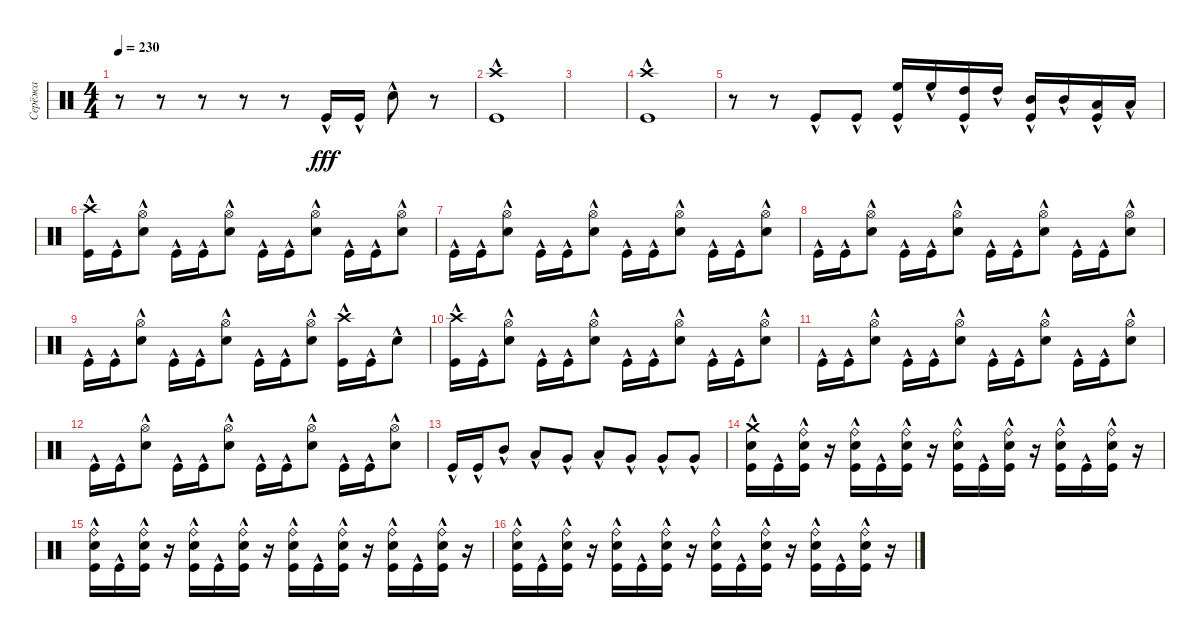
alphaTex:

\track ("Серёжа" "Серёжа") {instrument percussion}
\staff {score}
\articulation defaults
\ts (4 4)
\tempo 230
\clef neutral
\ks c
r.8{dy fff} r.8 r.8 r.8 r.8 "Kick (hit)"{hac}.16 "Kick (hit)"{hac}.16 "Snare (hit) 2"{hac}.8 r.8 |
("Crash high (hit)"{hac} "Kick (hit)"{hac}).1 |
|
("Crash high (hit)"{hac} "Kick (hit)"{hac}).1 |
r.8 r.8 "Kick (hit)"{hac}.8 "Kick (hit)"{hac}.8 ("High Floor Tom (hit)"{hac} "Kick (hit)"{hac}).16 "High Floor Tom (hit)"{hac}.16 ("High Tom (hit)"{hac} "Kick (hit)"{hac}).16 "High Tom (hit)"{hac}.16 ("Mid Tom (hit)"{hac} "Kick (hit)"{hac}).16 "Mid Tom (hit)"{hac}.16 ("Low Tom (hit)"{hac} "Kick (hit)"{hac}).16 "Low Tom (hit)"{hac}.16 |
("Crash high (hit)"{hac} "Kick (hit)"{hac}).16 "Kick (hit)"{hac}.16 ("Hi-Hat (open)" "Snare (hit) 2"{hac}).8 "Kick (hit)"{hac}.16 "Kick (hit)"{hac}.16 ("Hi-Hat (open)" "Snare (hit) 2"{hac}).8 "Kick (hit)"{hac}.16 "Kick (hit)"{hac}.16 ("Hi-Hat (open)" "Snare (hit) 2"{hac}).8 "Kick (hit)"{hac}.16 "Kick (hit)"{hac}.16 ("Hi-Hat (open)" "Snare (hit) 2"{hac}).8 |
"Kick (hit)"{hac}.16 "Kick (hit)"{hac}.16 ("Hi-Hat (open)" "Snare (hit) 2"{hac}).8 "Kick (hit)"{hac}.16 "Kick (hit)"{hac}.16 ("Hi-Hat (open)" "Snare (hit) 2"{hac}).8 "Kick (hit)"{hac}.16 "Kick (hit)"{hac}.16 ("Hi-Hat (open)" "Snare (hit) 2"{hac}).8 "Kick (hit)"{hac}.16 "Kick (hit)"{hac}.16 ("Hi-Hat (open)" "Snare (hit) 2"{hac}).8 |
"Kick (hit)"{hac}.16 "Kick (hit)"{hac}.16 ("Hi-Hat (open)" "Snare (hit) 2"{hac}).8 "Kick (hit)"{hac}.16 "Kick (hit)"{hac}.16 ("Hi-Hat (open)" "Snare (hit) 2"{hac}).8 "Kick (hit)"{hac}.16 "Kick (hit)"{hac}.16 ("Hi-Hat (open)" "Snare (hit) 2"{hac}).8 "Kick (hit)"{hac}.16 "Kick (hit)"{hac}.16 ("Hi-Hat (open)" "Snare (hit) 2"{hac}).8 |
"Kick (hit)"{hac}.16 "Kick (hit)"{hac}.16 ("Hi-Hat (open)" "Snare (hit) 2"{hac}).8 "Kick (hit)"{hac}.16 "Kick (hit)"{hac}.16 ("Hi-Hat (open)" "Snare (hit) 2"{hac}).8 "Kick (hit)"{hac}.16 "Kick (hit)"{hac}.16 ("Hi-Hat (open)" "Snare (hit) 2"{hac}).8 ("Crash high (hit)"{hac} "Kick (hit)"{hac}).16 "Kick (hit)"{hac}.16 "Snare (hit) 2"{hac}.8 |
("Crash high (hit)"{hac} "Kick (hit)"{hac}).16 "Kick (hit)"{hac}.16 ("Hi-Hat (open)" "Snare (hit) 2"{hac}).8 "Kick (hit)"{hac}.16 "Kick (hit)"{hac}.16 ("Hi-Hat (open)" "Snare (hit) 2"{hac}).8 "Kick (hit)"{hac}.16 "Kick (hit)"{hac}.16 ("Hi-Hat (open)" "Snare (hit) 2"{hac}).8 "Kick (hit)"{hac}.16 "Kick (hit)"{hac}.16 ("Hi-Hat (open)" "Snare (hit) 2"{hac}).8 |
"Kick (hit)"{hac}.16 "Kick (hit)"{hac}.16 ("Hi-Hat (open)" "Snare (hit) 2"{hac}).8 "Kick (hit)"{hac}.16 "Kick (hit)"{hac}.16 ("Hi-Hat (open)" "Snare (hit) 2"{hac}).8 "Kick (hit)"{hac}.16 "Kick (hit)"{hac}.16 ("Hi-Hat (open)" "Snare (hit) 2"{hac}).8 "Kick (hit)"{hac}.16 "Kick (hit)"{hac}.16 ("Hi-Hat (open)" "Snare (hit) 2"{hac}).8 |
"Kick (hit)"{hac}.16 "Kick (hit)"{hac}.16 ("Hi-Hat (open)" "Snare (hit) 2"{hac}).8 "Kick (hit)"{hac}.16 "Kick (hit)"{hac}.16 ("Hi-Hat (open)" "Snare (hit) 2"{hac}).8 "Kick (hit)"{hac}.16 "Kick (hit)"{hac}.16 ("Hi-Hat (open)" "Snare (hit) 2"{hac}).8 "Kick (hit)"{hac}.16 "Kick (hit)"{hac}.16 ("Hi-Hat (open)" "Snare (hit) 2"{hac}).8 |
"Kick (hit)"{hac}.16 "Kick (hit)"{hac}.16 "Mid Tom (hit)"{hac}.8 "Low Tom (hit)"{hac}.8 "Very Low Tom (hit)"{hac}.8 "Low Floor Tom (hit)"{hac}.8 "Very Low Tom (hit)"{hac}.8 "Very Low Tom (hit)"{hac}.8 "Very Low Tom (hit)"{hac}.8 |
("Crash medium (hit)"{hac} "Snare (hit) 2"{hac} "Kick (hit)"{hac}).16 "Kick (hit)"{hac}.16 ("Ride (bell)" "Snare (hit) 2"{hac} "Kick (hit)"{hac}).16 r.16 ("Ride (bell)" "Snare (hit) 2"{hac} "Kick (hit)"{hac}).16 "Kick (hit)"{hac}.16 ("Ride (bell)" "Snare (hit) 2"{hac} "Kick (hit)"{hac}).16 r.16 ("Ride (bell)" "Snare (hit) 2"{hac} "Kick (hit)"{hac}).16 "Kick (hit)"{hac}.16 ("Ride (bell)" "Snare (hit) 2"{hac} "Kick (hit)"{hac}).16 r.16 ("Ride (bell)" "Snare (hit) 2"{hac} "Kick (hit)"{hac}).16 "Kick (hit)"{hac}.16 ("Ride (bell)" "Snare (hit) 2"{hac} "Kick (hit)"{hac}).16 r.16 |
("Ride (bell)" "Snare (hit) 2"{hac} "Kick (hit)"{hac}).16 "Kick (hit)"{hac}.16 ("Ride (bell)" "Snare (hit) 2"{hac} "Kick (hit)"{hac}).16 r.16 ("Ride (bell)" "Snare (hit) 2"{hac} "Kick (hit)"{hac}).16 "Kick (hit)"{hac}.16 ("Ride (bell)" "Snare (hit) 2"{hac} "Kick (hit)"{hac}).16 r.16 ("Ride (bell)" "Snare (hit) 2"{hac} "Kick (hit)"{hac}).16 "Kick (hit)"{hac}.16 ("Ride (bell)" "Snare (hit) 2"{hac} "Kick (hit)"{hac}).16 r.16 ("Ride (bell)" "Snare (hit) 2"{hac} "Kick (hit)"{hac}).16 "Kick (hit)"{hac}.16 ("Ride (bell)" "Snare (hit) 2"{hac} "Kick (hit)"{hac}).16 r.16 |
("Ride (bell)" "Snare (hit) 2"{hac} "Kick (hit)"{hac}).16 "Kick (hit)"{hac}.16 ("Ride (bell)" "Snare (hit) 2"{hac} "Kick (hit)"{hac}).16 r.16 ("Ride (bell)" "Snare (hit) 2"{hac} "Kick (hit)"{hac}).16 "Kick (hit)"{hac}.16 ("Ride (bell)" "Snare (hit) 2"{hac} "Kick (hit)"{hac}).16 r.16 ("Ride (bell)" "Snare (hit) 2"{hac} "Kick (hit)"{hac}).16 "Kick (hit)"{hac}.16 ("Ride (bell)" "Snare (hit) 2"{hac} "Kick (hit)"{hac}).16 r.16 ("Ride (bell)" "Snare (hit) 2"{hac} "Kick (hit)"{hac}).16 "Kick (hit)"{hac}.16 ("Ride (bell)" "Snare (hit) 2"{hac} "Kick (hit)"{hac}).16 r.16
